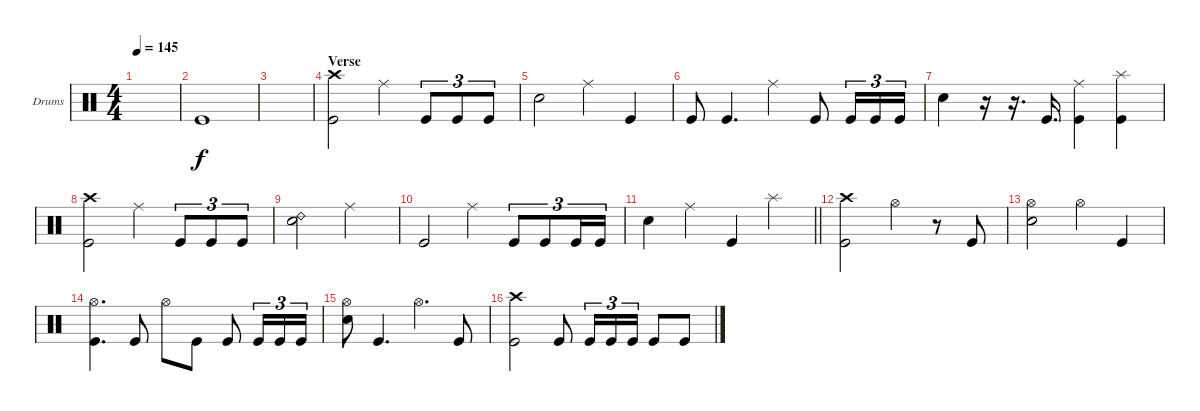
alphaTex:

\defaultSystemsLayout 4
\bracketExtendMode groupsimilarinstruments
\firstSystemTrackNameOrientation horizontal
\otherSystemsTrackNameOrientation horizontal
\track ("Drumkit" "Drums") {instrument percussion}
\staff {score}
\articulation defaults
\ts (4 4)
\tempo 145
\clef neutral
\ks c
|
"Kick (hit)".1 |
|
\section ("" "Verse")
("Kick (hit)" "Crash high (hit)").2 "Ride (middle)".4 "Kick (hit)".8{tu (3 2)} "Kick (hit)".8{tu (3 2)} "Kick (hit)".8{tu (3 2)} |
"Snare (hit) 2".2 "Ride (middle)".4 "Kick (hit)".4 |
"Kick (hit)".8 "Kick (hit)".4{d} "Ride (middle)".4 "Kick (hit)".8 "Kick (hit)".16{tu (3 2)} "Kick (hit)".16{tu (3 2)} "Kick (hit)".16{tu (3 2)} |
"Snare (hit) 2".4 r.16 r.16{d} "Kick (hit)".16{d} ("Kick (hit)" "Ride (middle)").4 ("Kick (hit)" "Splash (hit)").4 |
("Kick (hit)" "Crash high (hit)").2 "Ride (middle)".4 "Kick (hit)".8{tu (3 2)} "Kick (hit)".8{tu (3 2)} "Kick (hit)".8{tu (3 2)} |
("Snare (hit) 2" "Ride (bell) 2").2 "Ride (middle)".2 |
"Kick (hit)".2 "Ride (middle)".4 "Kick (hit)".8{tu (3 2)} "Kick (hit)".8{tu (3 2)} "Kick (hit)".16{tu (3 2)} "Kick (hit)".16{tu (3 2)} |
\barLineRight lightlight "Snare (hit) 2".4 "Ride (middle)".4 "Kick (hit)".4 "Splash (hit)".4
|
("Kick (hit)" "Crash high (hit)").2 "Hi-Hat (open)".4 r.8 "Kick (hit)".8 |
("Snare (hit) 2" "Hi-Hat (open)").2 "Hi-Hat (open)".4 "Kick (hit)".4 |
("Kick (hit)" "Hi-Hat (open)").4{d} "Kick (hit)".8 "Hi-Hat (open)".8 "Kick (hit)".8 "Kick (hit)".8 "Kick (hit)".16{tu (3 2)} "Kick (hit)".16{tu (3 2)} "Kick (hit)".16{tu (3 2)} |
("Snare (hit) 2" "Hi-Hat (open)").8 "Kick (hit)".4{d} "Hi-Hat (open)".4{d} "Kick (hit)".8 |
("Kick (hit)" "Crash high (hit)").2 "Kick (hit)".8 "Kick (hit)".16{tu (3 2)} "Kick (hit)".16{tu (3 2)} "Kick (hit)".16{tu (3 2)} "Kick (hit)".8 "Kick (hit)".8
